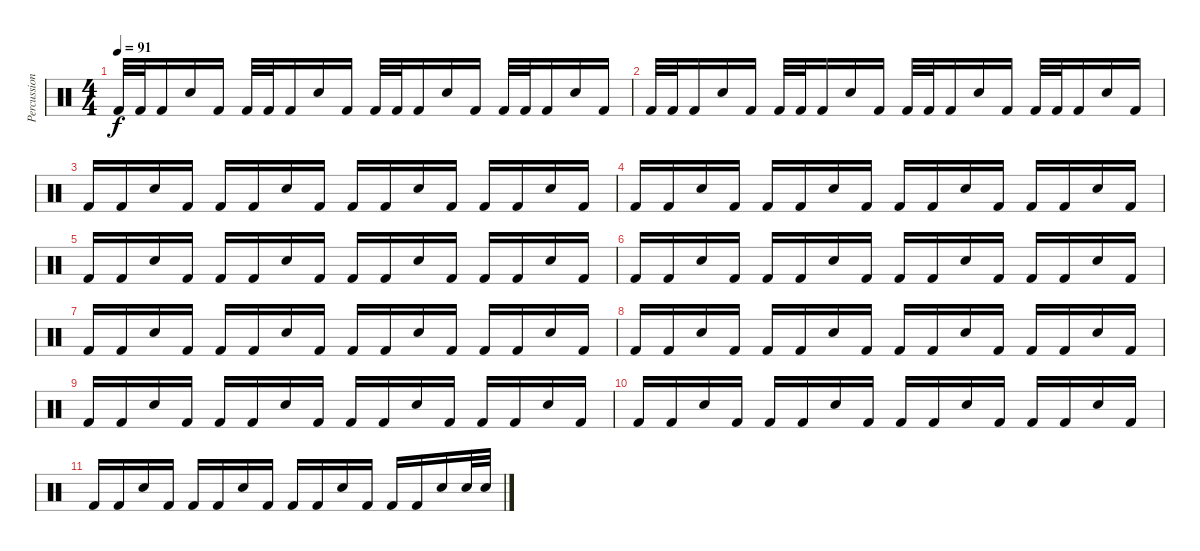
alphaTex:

\track ("Percussion" "Percussion") {instrument percussion}
\staff {score}
\articulation defaults
\ts (4 4)
\tempo 91
\clef neutral
\ks c "Kick (hit) 2".32{dy f} "Kick (hit) 2".32 "Kick (hit) 2".16 "Snare (hit) 2".16 "Kick (hit) 2".16 "Kick (hit) 2".32 "Kick (hit) 2".32 "Kick (hit) 2".16 "Snare (hit) 2".16 "Kick (hit) 2".16 "Kick (hit) 2".32 "Kick (hit) 2".32 "Kick (hit) 2".16 "Snare (hit) 2".16 "Kick (hit) 2".16 "Kick (hit) 2".32 "Kick (hit) 2".32 "Kick (hit) 2".16 "Snare (hit) 2".16 "Kick (hit) 2".16
|
"Kick (hit) 2".32 "Kick (hit) 2".32 "Kick (hit) 2".16 "Snare (hit) 2".16 "Kick (hit) 2".16 "Kick (hit) 2".32 "Kick (hit) 2".32 "Kick (hit) 2".16 "Snare (hit) 2".16 "Kick (hit) 2".16 "Kick (hit) 2".32 "Kick (hit) 2".32 "Kick (hit) 2".16 "Snare (hit) 2".16 "Kick (hit) 2".16 "Kick (hit) 2".32 "Kick (hit) 2".32 "Kick (hit) 2".16 "Snare (hit) 2".16 "Kick (hit) 2".16 |
"Kick (hit) 2".16 "Kick (hit) 2".16 "Snare (hit) 2".16 "Kick (hit) 2".16 "Kick (hit) 2".16 "Kick (hit) 2".16 "Snare (hit) 2".16 "Kick (hit) 2".16 "Kick (hit) 2".16 "Kick (hit) 2".16 "Snare (hit) 2".16 "Kick (hit) 2".16 "Kick (hit) 2".16 "Kick (hit) 2".16 "Snare (hit) 2".16 "Kick (hit) 2".16 |
"Kick (hit) 2".16 "Kick (hit) 2".16 "Snare (hit) 2".16 "Kick (hit) 2".16 "Kick (hit) 2".16 "Kick (hit) 2".16 "Snare (hit) 2".16 "Kick (hit) 2".16 "Kick (hit) 2".16 "Kick (hit) 2".16 "Snare (hit) 2".16 "Kick (hit) 2".16 "Kick (hit) 2".16 "Kick (hit) 2".16 "Snare (hit) 2".16 "Kick (hit) 2".16 |
"Kick (hit) 2".16 "Kick (hit) 2".16 "Snare (hit) 2".16 "Kick (hit) 2".16 "Kick (hit) 2".16 "Kick (hit) 2".16 "Snare (hit) 2".16 "Kick (hit) 2".16 "Kick (hit) 2".16 "Kick (hit) 2".16 "Snare (hit) 2".16 "Kick (hit) 2".16 "Kick (hit) 2".16 "Kick (hit) 2".16 "Snare (hit) 2".16 "Kick (hit) 2".16 |
"Kick (hit) 2".16 "Kick (hit) 2".16 "Snare (hit) 2".16 "Kick (hit) 2".16 "Kick (hit) 2".16 "Kick (hit) 2".16 "Snare (hit) 2".16 "Kick (hit) 2".16 "Kick (hit) 2".16 "Kick (hit) 2".16 "Snare (hit) 2".16 "Kick (hit) 2".16 "Kick (hit) 2".16 "Kick (hit) 2".16 "Snare (hit) 2".16 "Kick (hit) 2".16 |
"Kick (hit) 2".16 "Kick (hit) 2".16 "Snare (hit) 2".16 "Kick (hit) 2".16 "Kick (hit) 2".16 "Kick (hit) 2".16 "Snare (hit) 2".16 "Kick (hit) 2".16 "Kick (hit) 2".16 "Kick (hit) 2".16 "Snare (hit) 2".16 "Kick (hit) 2".16 "Kick (hit) 2".16 "Kick (hit) 2".16 "Snare (hit) 2".16 "Kick (hit) 2".16 |
"Kick (hit) 2".16 "Kick (hit) 2".16 "Snare (hit) 2".16 "Kick (hit) 2".16 "Kick (hit) 2".16 "Kick (hit) 2".16 "Snare (hit) 2".16 "Kick (hit) 2".16 "Kick (hit) 2".16 "Kick (hit) 2".16 "Snare (hit) 2".16 "Kick (hit) 2".16 "Kick (hit) 2".16 "Kick (hit) 2".16 "Snare (hit) 2".16 "Kick (hit) 2".16 |
"Kick (hit) 2".16 "Kick (hit) 2".16 "Snare (hit) 2".16 "Kick (hit) 2".16 "Kick (hit) 2".16 "Kick (hit) 2".16 "Snare (hit) 2".16 "Kick (hit) 2".16 "Kick (hit) 2".16 "Kick (hit) 2".16 "Snare (hit) 2".16 "Kick (hit) 2".16 "Kick (hit) 2".16 "Kick (hit) 2".16 "Snare (hit) 2".16 "Kick (hit) 2".16 |
"Kick (hit) 2".16 "Kick (hit) 2".16 "Snare (hit) 2".16 "Kick (hit) 2".16 "Kick (hit) 2".16 "Kick (hit) 2".16 "Snare (hit) 2".16 "Kick (hit) 2".16 "Kick (hit) 2".16 "Kick (hit) 2".16 "Snare (hit) 2".16 "Kick (hit) 2".16 "Kick (hit) 2".16 "Kick (hit) 2".16 "Snare (hit) 2".16 "Kick (hit) 2".16 |
"Kick (hit) 2".16 "Kick (hit) 2".16 "Snare (hit) 2".16 "Kick (hit) 2".16 "Kick (hit) 2".16 "Kick (hit) 2".16 "Snare (hit) 2".16 "Kick (hit) 2".16 "Kick (hit) 2".16 "Kick (hit) 2".16 "Snare (hit) 2".16 "Kick (hit) 2".16 "Kick (hit) 2".16 "Kick (hit) 2".16 "Snare (hit) 2".16 "Snare (hit) 2".32 "Snare (hit) 2".32
